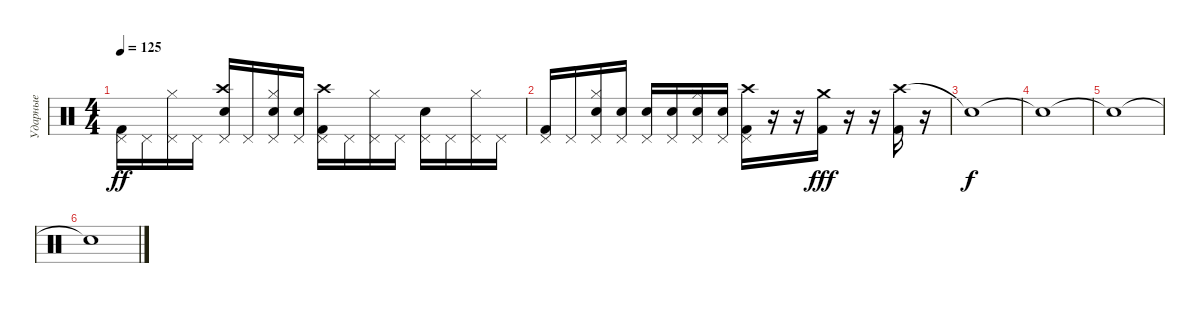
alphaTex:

\track ("Ударные" "Ударные") {instrument percussion}
\staff {score}
\articulation defaults
\ts (4 4)
\tempo 125
\clef neutral
\ks c
("Kick (hit) 2" "Pedal Hi-Hat (hit)").16{dy ff} "Pedal Hi-Hat (hit)".16 ("Hi-Hat (closed)" "Pedal Hi-Hat (hit)").16 "Pedal Hi-Hat (hit)".16 ("Crash high (hit)" "Snare (hit) 2" "Pedal Hi-Hat (hit)").16 "Pedal Hi-Hat (hit)".16 ("Hi-Hat (closed)" "Snare (hit) 2" "Pedal Hi-Hat (hit)").16 ("Snare (hit) 2" "Pedal Hi-Hat (hit)").16 ("Crash high (hit)" "Kick (hit) 2" "Pedal Hi-Hat (hit)").16 "Pedal Hi-Hat (hit)".16 ("Hi-Hat (closed)" "Pedal Hi-Hat (hit)").16 "Pedal Hi-Hat (hit)".16 ("Snare (hit) 2" "Pedal Hi-Hat (hit)").16 "Pedal Hi-Hat (hit)".16 ("Hi-Hat (closed)" "Pedal Hi-Hat (hit)").16 "Pedal Hi-Hat (hit)".16 |
("Kick (hit) 2" "Pedal Hi-Hat (hit)").16 "Pedal Hi-Hat (hit)".16 ("Hi-Hat (closed)" "Snare (hit) 2" "Pedal Hi-Hat (hit)").16 ("Snare (hit) 2" "Pedal Hi-Hat (hit)").16 ("Snare (hit) 2" "Pedal Hi-Hat (hit)").16 ("Snare (hit) 2" "Pedal Hi-Hat (hit)").16 ("Hi-Hat (closed)" "Snare (hit) 2" "Pedal Hi-Hat (hit)").16 ("Snare (hit) 2" "Pedal Hi-Hat (hit)").16 ("Crash high (hit)" "Kick (hit) 2" "Pedal Hi-Hat (hit)").16 r.16 r.16 ("Crash medium (hit)" "Kick (hit) 2").16{dy fff} r.16 r.16 ("Crash high (hit)" "Kick (hit) 2").16 r.16 |
"Snare (hit)"{t}.1{dy f} |
"Snare (hit)"{t}.1 |
"Snare (hit)"{t}.1 |
"Snare (hit)"{t}.1
